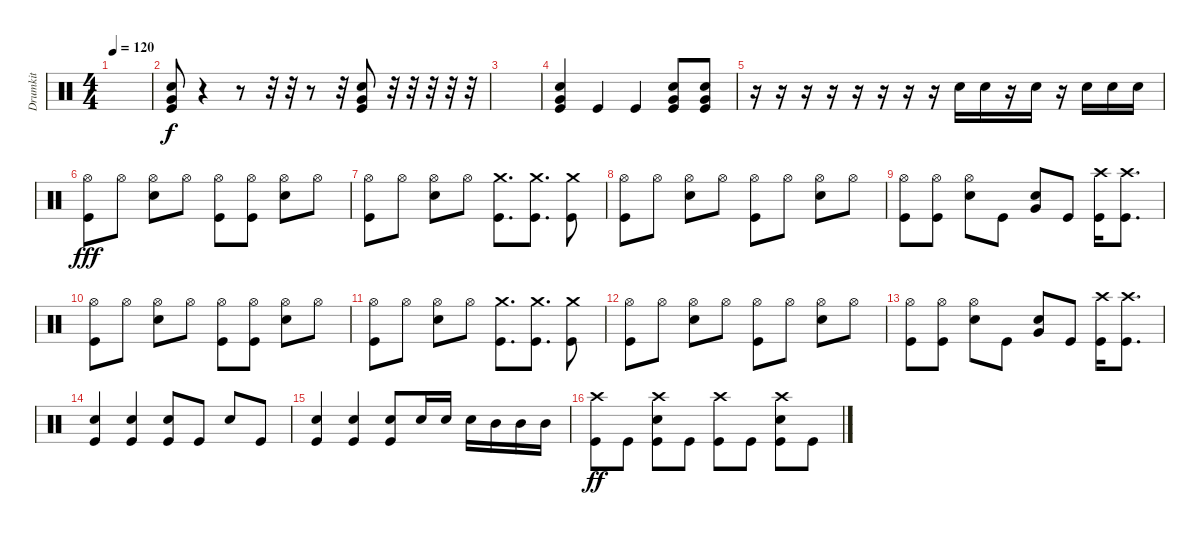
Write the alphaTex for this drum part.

\track ("Drumkit" "Drumkit") {instrument percussion}
\staff {score}
\articulation defaults
\ts (4 4)
\tempo 120
\clef neutral
\ks c
|
("Kick (hit)" "Very Low Tom (hit)" "Snare (hit) 2").8 r.4 r.8 r.32 r.32 r.8 r.32 ("Kick (hit)" "Very Low Tom (hit)" "Snare (hit) 2").8 r.32 r.32 r.32 r.32 r.32 |
|
("Kick (hit)" "Very Low Tom (hit)" "Snare (hit) 2").4 "Kick (hit)".4 "Kick (hit)".4 ("Kick (hit)" "Very Low Tom (hit)" "Snare (hit) 2").8 ("Kick (hit)" "Very Low Tom (hit)" "Snare (hit) 2").8 |
r.16 r.16 r.16 r.16 r.16 r.16 r.16 r.16 "Snare (hit) 2".16{dy f} "Snare (hit) 2".16 r.16 "Snare (hit) 2".16 r.16 "Snare (hit) 2".16 "Snare (hit) 2".16 "Snare (hit) 2".16 |
("Hi-Hat (open)" "Kick (hit)").8{dy fff} "Hi-Hat (open)".8 ("Hi-Hat (open)" "Snare (hit) 2").8 "Hi-Hat (open)".8 ("Hi-Hat (open)" "Kick (hit)").8 ("Hi-Hat (open)" "Kick (hit)").8 ("Hi-Hat (open)" "Snare (hit) 2").8 "Hi-Hat (open)".8 |
("Hi-Hat (open)" "Kick (hit)").8 "Hi-Hat (open)".8 ("Hi-Hat (open)" "Snare (hit) 2").8 "Hi-Hat (open)".8 ("Kick (hit)" "Crash medium (hit)").8{d} ("Kick (hit)" "Crash medium (hit)").8{d} ("Kick (hit)" "Crash medium (hit)").8 |
("Hi-Hat (open)" "Kick (hit)").8 "Hi-Hat (open)".8 ("Hi-Hat (open)" "Snare (hit) 2").8 "Hi-Hat (open)".8 ("Hi-Hat (open)" "Kick (hit)").8 "Hi-Hat (open)".8 ("Hi-Hat (open)" "Snare (hit) 2").8 "Hi-Hat (open)".8 |
("Hi-Hat (open)" "Kick (hit)").8 ("Hi-Hat (open)" "Kick (hit)").8 ("Hi-Hat (open)" "Snare (hit) 2").8 "Kick (hit)".8 ("Very Low Tom (hit)" "Snare (hit) 2").8 "Kick (hit)".8 ("Kick (hit)" "Crash high (hit)").16 ("Kick (hit)" "Crash high (hit)").8{d} |
("Hi-Hat (open)" "Kick (hit)").8 "Hi-Hat (open)".8 ("Hi-Hat (open)" "Snare (hit) 2").8 "Hi-Hat (open)".8 ("Hi-Hat (open)" "Kick (hit)").8 ("Hi-Hat (open)" "Kick (hit)").8 ("Hi-Hat (open)" "Snare (hit) 2").8 "Hi-Hat (open)".8 |
("Hi-Hat (open)" "Kick (hit)").8 "Hi-Hat (open)".8 ("Hi-Hat (open)" "Snare (hit) 2").8 "Hi-Hat (open)".8 ("Kick (hit)" "Crash medium (hit)").8{d} ("Kick (hit)" "Crash medium (hit)").8{d} ("Kick (hit)" "Crash medium (hit)").8 |
("Hi-Hat (open)" "Kick (hit)").8 "Hi-Hat (open)".8 ("Hi-Hat (open)" "Snare (hit) 2").8 "Hi-Hat (open)".8 ("Hi-Hat (open)" "Kick (hit)").8 "Hi-Hat (open)".8 ("Hi-Hat (open)" "Snare (hit) 2").8 "Hi-Hat (open)".8 |
("Hi-Hat (open)" "Kick (hit)").8 ("Hi-Hat (open)" "Kick (hit)").8 ("Hi-Hat (open)" "Snare (hit) 2").8 "Kick (hit)".8 ("Very Low Tom (hit)" "Snare (hit) 2").8 "Kick (hit)".8 ("Kick (hit)" "Crash high (hit)").16 ("Kick (hit)" "Crash high (hit)").8{d} |
("Snare (hit) 2" "Kick (hit)").4 ("Snare (hit) 2" "Kick (hit)").4 ("Snare (hit) 2" "Kick (hit)").8 "Kick (hit)".8 "Snare (hit) 2".8 "Kick (hit)".8 |
("Snare (hit) 2" "Kick (hit)").4 ("Snare (hit) 2" "Kick (hit)").4 ("Snare (hit) 2" "Kick (hit)").8 "Snare (hit) 2".16 "Snare (hit) 2".16 "Snare (hit) 2".16 "Mid Tom (hit)".16 "Mid Tom (hit)".16 "Mid Tom (hit)".16 |
("Crash high (hit)" "Kick (hit)").8{dy ff} "Kick (hit)".8 ("Snare (hit) 2" "Kick (hit)" "Crash high (hit)").8 "Kick (hit)".8 ("Crash high (hit)" "Kick (hit)").8 "Kick (hit)".8 ("Snare (hit) 2" "Kick (hit)" "Crash high (hit)").8 "Kick (hit)".8
